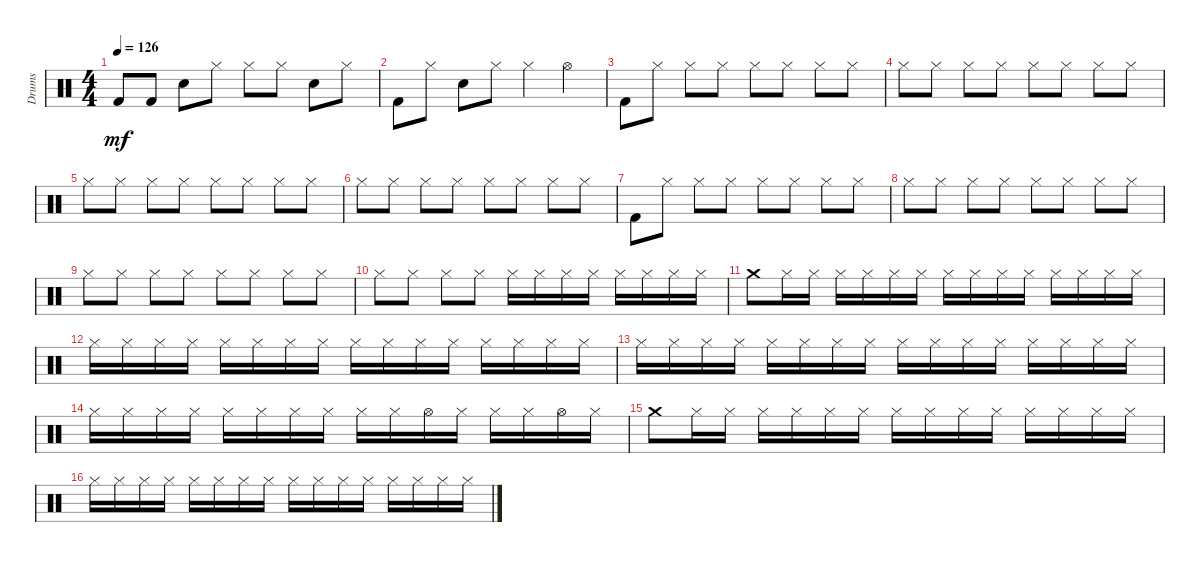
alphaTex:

\track ("Drums" "Drums") {instrument percussion}
\staff {score}
\articulation defaults
\ts (4 4)
\tempo 126
\clef neutral
\ks c "Kick (hit) 2".8{dy mf} "Kick (hit) 2".8 "Snare (hit) 2".8 "Hi-Hat (closed)".8 "Hi-Hat (closed)".8 "Hi-Hat (closed)".8 "Snare (hit) 2".8 "Hi-Hat (closed)".8
|
"Kick (hit) 2".8 "Hi-Hat (closed)".8 "Snare (hit) 2".8 "Hi-Hat (closed)".8 "Hi-Hat (closed)".4 "Hi-Hat (open)".4 |
"Kick (hit) 2".8 "Hi-Hat (closed)".8 "Hi-Hat (closed)".8 "Hi-Hat (closed)".8 "Hi-Hat (closed)".8 "Hi-Hat (closed)".8 "Hi-Hat (closed)".8 "Hi-Hat (closed)".8 |
"Hi-Hat (closed)".8 "Hi-Hat (closed)".8 "Hi-Hat (closed)".8 "Hi-Hat (closed)".8 "Hi-Hat (closed)".8 "Hi-Hat (closed)".8 "Hi-Hat (closed)".8 "Hi-Hat (closed)".8 |
"Hi-Hat (closed)".8 "Hi-Hat (closed)".8 "Hi-Hat (closed)".8 "Hi-Hat (closed)".8 "Hi-Hat (closed)".8 "Hi-Hat (closed)".8 "Hi-Hat (closed)".8 "Hi-Hat (closed)".8 |
"Hi-Hat (closed)".8 "Hi-Hat (closed)".8 "Hi-Hat (closed)".8 "Hi-Hat (closed)".8 "Hi-Hat (closed)".8 "Hi-Hat (closed)".8 "Hi-Hat (closed)".8 "Hi-Hat (closed)".8 |
"Kick (hit) 2".8 "Hi-Hat (closed)".8 "Hi-Hat (closed)".8 "Hi-Hat (closed)".8 "Hi-Hat (closed)".8 "Hi-Hat (closed)".8 "Hi-Hat (closed)".8 "Hi-Hat (closed)".8 |
"Hi-Hat (closed)".8 "Hi-Hat (closed)".8 "Hi-Hat (closed)".8 "Hi-Hat (closed)".8 "Hi-Hat (closed)".8 "Hi-Hat (closed)".8 "Hi-Hat (closed)".8 "Hi-Hat (closed)".8 |
"Hi-Hat (closed)".8 "Hi-Hat (closed)".8 "Hi-Hat (closed)".8 "Hi-Hat (closed)".8 "Hi-Hat (closed)".8 "Hi-Hat (closed)".8 "Hi-Hat (closed)".8 "Hi-Hat (closed)".8 |
"Hi-Hat (closed)".8 "Hi-Hat (closed)".8 "Hi-Hat (closed)".8 "Hi-Hat (closed)".8 "Hi-Hat (closed)".16 "Hi-Hat (closed)".16 "Hi-Hat (closed)".16 "Hi-Hat (closed)".16 "Hi-Hat (closed)".16 "Hi-Hat (closed)".16 "Hi-Hat (closed)".16 "Hi-Hat (closed)".16 |
"Crash medium (hit)".8 "Hi-Hat (closed)".16 "Hi-Hat (closed)".16 "Hi-Hat (closed)".16 "Hi-Hat (closed)".16 "Hi-Hat (closed)".16 "Hi-Hat (closed)".16 "Hi-Hat (closed)".16 "Hi-Hat (closed)".16 "Hi-Hat (closed)".16 "Hi-Hat (closed)".16 "Hi-Hat (closed)".16 "Hi-Hat (closed)".16 "Hi-Hat (closed)".16 "Hi-Hat (closed)".16 |
"Hi-Hat (closed)".16 "Hi-Hat (closed)".16 "Hi-Hat (closed)".16 "Hi-Hat (closed)".16 "Hi-Hat (closed)".16 "Hi-Hat (closed)".16 "Hi-Hat (closed)".16 "Hi-Hat (closed)".16 "Hi-Hat (closed)".16 "Hi-Hat (closed)".16 "Hi-Hat (closed)".16 "Hi-Hat (closed)".16 "Hi-Hat (closed)".16 "Hi-Hat (closed)".16 "Hi-Hat (closed)".16 "Hi-Hat (closed)".16 |
"Hi-Hat (closed)".16 "Hi-Hat (closed)".16 "Hi-Hat (closed)".16 "Hi-Hat (closed)".16 "Hi-Hat (closed)".16 "Hi-Hat (closed)".16 "Hi-Hat (closed)".16 "Hi-Hat (closed)".16 "Hi-Hat (closed)".16 "Hi-Hat (closed)".16 "Hi-Hat (closed)".16 "Hi-Hat (closed)".16 "Hi-Hat (closed)".16 "Hi-Hat (closed)".16 "Hi-Hat (closed)".16 "Hi-Hat (closed)".16 |
"Hi-Hat (closed)".16 "Hi-Hat (closed)".16 "Hi-Hat (closed)".16 "Hi-Hat (closed)".16 "Hi-Hat (closed)".16 "Hi-Hat (closed)".16 "Hi-Hat (closed)".16 "Hi-Hat (closed)".16 "Hi-Hat (closed)".16 "Hi-Hat (closed)".16 "Hi-Hat (open)".16 "Hi-Hat (closed)".16 "Hi-Hat (closed)".16 "Hi-Hat (closed)".16 "Hi-Hat (open)".16 "Hi-Hat (closed)".16 |
"Crash medium (hit)".8 "Hi-Hat (closed)".16 "Hi-Hat (closed)".16 "Hi-Hat (closed)".16 "Hi-Hat (closed)".16 "Hi-Hat (closed)".16 "Hi-Hat (closed)".16 "Hi-Hat (closed)".16 "Hi-Hat (closed)".16 "Hi-Hat (closed)".16 "Hi-Hat (closed)".16 "Hi-Hat (closed)".16 "Hi-Hat (closed)".16 "Hi-Hat (closed)".16 "Hi-Hat (closed)".16 |
"Hi-Hat (closed)".16 "Hi-Hat (closed)".16 "Hi-Hat (closed)".16 "Hi-Hat (closed)".16 "Hi-Hat (closed)".16 "Hi-Hat (closed)".16 "Hi-Hat (closed)".16 "Hi-Hat (closed)".16 "Hi-Hat (closed)".16 "Hi-Hat (closed)".16 "Hi-Hat (closed)".16 "Hi-Hat (closed)".16 "Hi-Hat (closed)".16 "Hi-Hat (closed)".16 "Hi-Hat (closed)".16 "Hi-Hat (closed)".16
